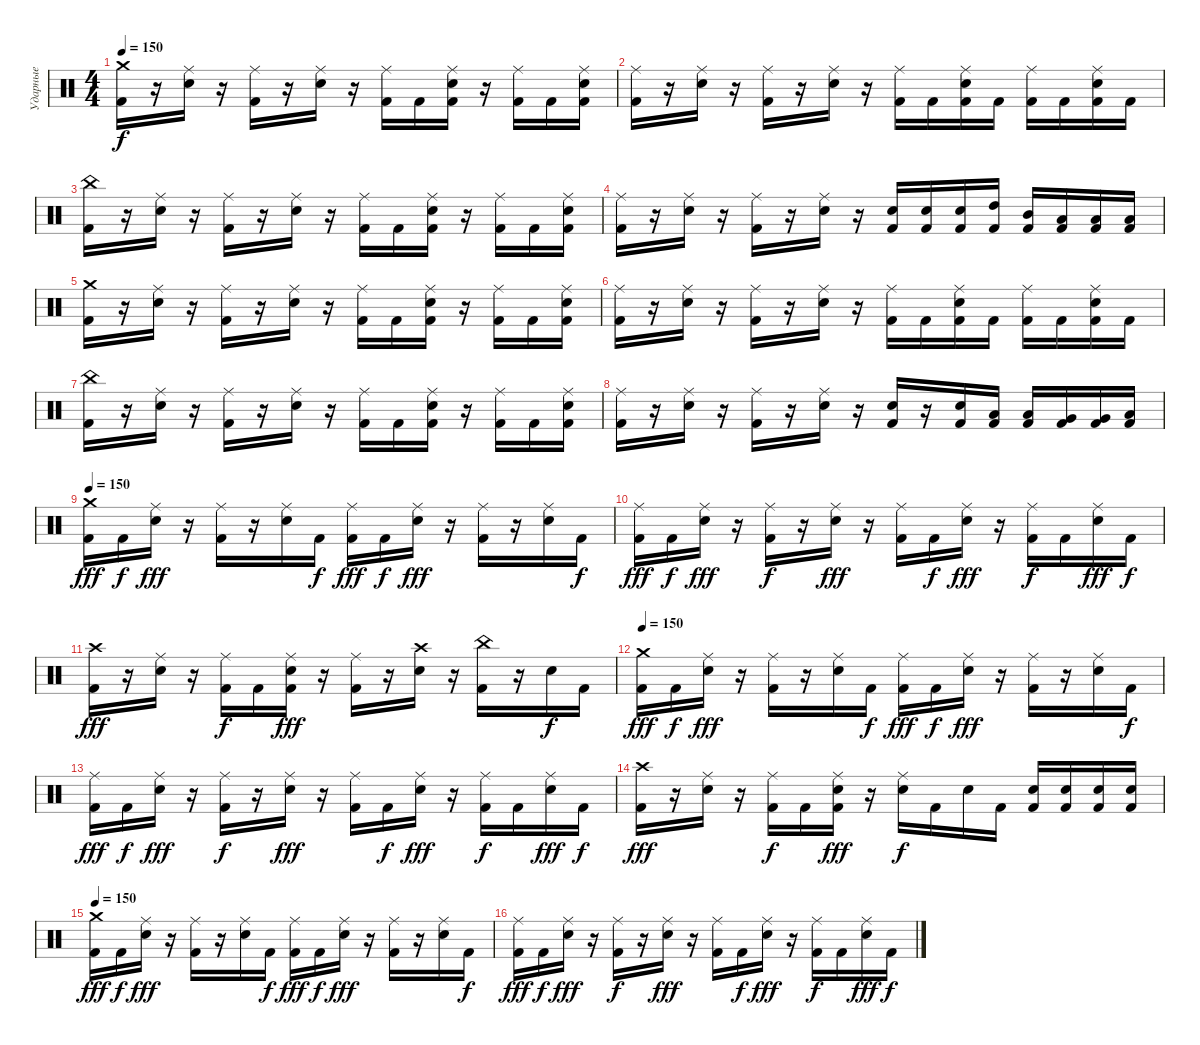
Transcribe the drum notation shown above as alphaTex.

\track ("Ударные" "Ударные") {instrument percussion}
\staff {score}
\articulation defaults
\ts (4 4)
\tempo 150
\clef neutral
\ks c
("Crash medium (hit)" "Kick (hit) 2").16{dy f} r.16 ("Ride (middle)" "Snare (hit) 2").16 r.16 ("Ride (middle)" "Kick (hit) 2").16 r.16 ("Ride (middle)" "Snare (hit) 2").16 r.16 ("Ride (middle)" "Kick (hit) 2").16 "Kick (hit) 2".16 ("Ride (middle)" "Snare (hit) 2" "Kick (hit) 2").16 r.16 ("Ride (middle)" "Kick (hit) 2").16 "Kick (hit) 2".16 ("Ride (middle)" "Snare (hit) 2" "Kick (hit) 2").16 |
("Ride (middle)" "Kick (hit) 2").16 r.16 ("Ride (middle)" "Snare (hit) 2").16 r.16 ("Ride (middle)" "Kick (hit) 2").16 r.16 ("Ride (middle)" "Snare (hit) 2").16 r.16 ("Ride (middle)" "Kick (hit) 2").16 "Kick (hit) 2".16 ("Ride (middle)" "Snare (hit) 2" "Kick (hit) 2").16 "Kick (hit) 2".16 ("Ride (middle)" "Kick (hit) 2").16 "Kick (hit) 2".16 ("Ride (middle)" "Snare (hit) 2" "Kick (hit) 2").16 "Kick (hit) 2".16 |
("China (hit)" "Kick (hit) 2").16 r.16 ("Ride (middle)" "Snare (hit) 2").16 r.16 ("Ride (middle)" "Kick (hit) 2").16 r.16 ("Ride (middle)" "Snare (hit) 2").16 r.16 ("Ride (middle)" "Kick (hit) 2").16 "Kick (hit) 2".16 ("Ride (middle)" "Snare (hit) 2" "Kick (hit) 2").16 r.16 ("Ride (middle)" "Kick (hit) 2").16 "Kick (hit) 2".16 ("Ride (middle)" "Snare (hit) 2" "Kick (hit) 2").16 |
("Ride (middle)" "Kick (hit) 2").16 r.16 ("Ride (middle)" "Snare (hit) 2").16 r.16 ("Ride (middle)" "Kick (hit) 2").16 r.16 ("Ride (middle)" "Snare (hit) 2").16 r.16 ("Snare (hit) 2" "Kick (hit) 2").16 ("Snare (hit) 2" "Kick (hit) 2").16 ("Snare (hit) 2" "Kick (hit) 2").16 ("High Tom (hit)" "Kick (hit) 2").16 ("Mid Tom (hit)" "Kick (hit) 2").16 ("Low Tom (hit)" "Kick (hit) 2").16 ("Low Tom (hit)" "Kick (hit) 2").16 ("Low Tom (hit)" "Kick (hit) 2").16 |
("Crash medium (hit)" "Kick (hit) 2").16 r.16 ("Ride (middle)" "Snare (hit) 2").16 r.16 ("Ride (middle)" "Kick (hit) 2").16 r.16 ("Ride (middle)" "Snare (hit) 2").16 r.16 ("Ride (middle)" "Kick (hit) 2").16 "Kick (hit) 2".16 ("Ride (middle)" "Snare (hit) 2" "Kick (hit) 2").16 r.16 ("Ride (middle)" "Kick (hit) 2").16 "Kick (hit) 2".16 ("Ride (middle)" "Snare (hit) 2" "Kick (hit) 2").16 |
("Ride (middle)" "Kick (hit) 2").16 r.16 ("Ride (middle)" "Snare (hit) 2").16 r.16 ("Ride (middle)" "Kick (hit) 2").16 r.16 ("Ride (middle)" "Snare (hit) 2").16 r.16 ("Ride (middle)" "Kick (hit) 2").16 "Kick (hit) 2".16 ("Ride (middle)" "Snare (hit) 2" "Kick (hit) 2").16 "Kick (hit) 2".16 ("Ride (middle)" "Kick (hit) 2").16 "Kick (hit) 2".16 ("Ride (middle)" "Snare (hit) 2" "Kick (hit) 2").16 "Kick (hit) 2".16 |
("China (hit)" "Kick (hit) 2").16 r.16 ("Ride (middle)" "Snare (hit) 2").16 r.16 ("Ride (middle)" "Kick (hit) 2").16 r.16 ("Ride (middle)" "Snare (hit) 2").16 r.16 ("Ride (middle)" "Kick (hit) 2").16 "Kick (hit) 2".16 ("Ride (middle)" "Snare (hit) 2" "Kick (hit) 2").16 r.16 ("Ride (middle)" "Kick (hit) 2").16 "Kick (hit) 2".16 ("Ride (middle)" "Snare (hit) 2" "Kick (hit) 2").16 |
("Ride (middle)" "Kick (hit) 2").16 r.16 ("Ride (middle)" "Snare (hit) 2").16 r.16 ("Ride (middle)" "Kick (hit) 2").16 r.16 ("Ride (middle)" "Snare (hit) 2").16 r.16 ("Snare (hit) 2" "Kick (hit) 2").16 r.16 ("Snare (hit) 2" "Kick (hit) 2").16 ("Low Tom (hit)" "Kick (hit) 2").16 ("Low Tom (hit)" "Kick (hit) 2").16 ("Very Low Tom (hit)" "Kick (hit) 2").16 ("Very Low Tom (hit)" "Kick (hit) 2").16 ("Low Floor Tom (hit)" "Kick (hit) 2").16 |
\tempo 150
("Crash medium (hit)" "Kick (hit) 2").16{dy fff} "Kick (hit) 2".16{dy f} ("Ride (middle)" "Snare (hit) 2").16{dy fff} r.16 ("Ride (middle)" "Kick (hit) 2").16 r.16 ("Ride (middle)" "Snare (hit) 2").16 "Kick (hit) 2".16{dy f} ("Ride (middle)" "Kick (hit) 2").16{dy fff} "Kick (hit) 2".16{dy f} ("Ride (middle)" "Snare (hit) 2").16{dy fff} r.16 ("Ride (middle)" "Kick (hit) 2").16 r.16 ("Ride (middle)" "Snare (hit) 2").16 "Kick (hit) 2".16{dy f} |
("Ride (middle)" "Kick (hit) 2").16{dy fff} "Kick (hit) 2".16{dy f} ("Ride (middle)" "Snare (hit) 2").16{dy fff} r.16 ("Ride (middle)" "Kick (hit) 2").16{dy f} r.16 ("Ride (middle)" "Snare (hit) 2").16{dy fff} r.16 ("Ride (middle)" "Kick (hit) 2").16 "Kick (hit) 2".16{dy f} ("Ride (middle)" "Snare (hit) 2").16{dy fff} r.16 ("Ride (middle)" "Kick (hit) 2").16{dy f} "Kick (hit) 2".16 ("Ride (middle)" "Snare (hit) 2").16{dy fff} "Kick (hit) 2".16{dy f} |
("Crash high (hit)" "Kick (hit) 2").16{dy fff} r.16 ("Ride (middle)" "Snare (hit) 2").16 r.16 ("Ride (middle)" "Kick (hit) 2").16{dy f} "Kick (hit) 2".16 ("Ride (middle)" "Snare (hit) 2" "Kick (hit) 2").16{dy fff} r.16 ("Ride (middle)" "Kick (hit) 2").16 r.16 ("Crash high (hit)" "Snare (hit) 2").16 r.16 ("China (hit)" "Kick (hit) 2").16 r.16 "Snare (hit) 2".16{dy f} "Kick (hit) 2".16 |
\tempo 150
("Crash medium (hit)" "Kick (hit) 2").16{dy fff} "Kick (hit) 2".16{dy f} ("Ride (middle)" "Snare (hit) 2").16{dy fff} r.16 ("Ride (middle)" "Kick (hit) 2").16 r.16 ("Ride (middle)" "Snare (hit) 2").16 "Kick (hit) 2".16{dy f} ("Ride (middle)" "Kick (hit) 2").16{dy fff} "Kick (hit) 2".16{dy f} ("Ride (middle)" "Snare (hit) 2").16{dy fff} r.16 ("Ride (middle)" "Kick (hit) 2").16 r.16 ("Ride (middle)" "Snare (hit) 2").16 "Kick (hit) 2".16{dy f} |
("Ride (middle)" "Kick (hit) 2").16{dy fff} "Kick (hit) 2".16{dy f} ("Ride (middle)" "Snare (hit) 2").16{dy fff} r.16 ("Ride (middle)" "Kick (hit) 2").16{dy f} r.16 ("Ride (middle)" "Snare (hit) 2").16{dy fff} r.16 ("Ride (middle)" "Kick (hit) 2").16 "Kick (hit) 2".16{dy f} ("Ride (middle)" "Snare (hit) 2").16{dy fff} r.16 ("Ride (middle)" "Kick (hit) 2").16{dy f} "Kick (hit) 2".16 ("Ride (middle)" "Snare (hit) 2").16{dy fff} "Kick (hit) 2".16{dy f} |
("Crash high (hit)" "Kick (hit) 2").16{dy fff} r.16 ("Ride (middle)" "Snare (hit) 2").16 r.16 ("Ride (middle)" "Kick (hit) 2").16{dy f} "Kick (hit) 2".16 ("Ride (middle)" "Snare (hit) 2" "Kick (hit) 2").16{dy fff} r.16 ("Ride (middle)" "Snare (hit) 2").16{dy f} "Kick (hit) 2".16 "Snare (hit) 2".16 "Kick (hit) 2".16 ("Snare (hit) 2" "Kick (hit) 2").16 ("Snare (hit) 2" "Kick (hit) 2").16 ("Snare (hit) 2" "Kick (hit) 2").16 ("Snare (hit) 2" "Kick (hit) 2").16 |
\tempo 150
("Crash medium (hit)" "Kick (hit) 2").16{dy fff} "Kick (hit) 2".16{dy f} ("Ride (middle)" "Snare (hit) 2").16{dy fff} r.16 ("Ride (middle)" "Kick (hit) 2").16 r.16 ("Ride (middle)" "Snare (hit) 2").16 "Kick (hit) 2".16{dy f} ("Ride (middle)" "Kick (hit) 2").16{dy fff} "Kick (hit) 2".16{dy f} ("Ride (middle)" "Snare (hit) 2").16{dy fff} r.16 ("Ride (middle)" "Kick (hit) 2").16 r.16 ("Ride (middle)" "Snare (hit) 2").16 "Kick (hit) 2".16{dy f} |
("Ride (middle)" "Kick (hit) 2").16{dy fff} "Kick (hit) 2".16{dy f} ("Ride (middle)" "Snare (hit) 2").16{dy fff} r.16 ("Ride (middle)" "Kick (hit) 2").16{dy f} r.16 ("Ride (middle)" "Snare (hit) 2").16{dy fff} r.16 ("Ride (middle)" "Kick (hit) 2").16 "Kick (hit) 2".16{dy f} ("Ride (middle)" "Snare (hit) 2").16{dy fff} r.16 ("Ride (middle)" "Kick (hit) 2").16{dy f} "Kick (hit) 2".16 ("Ride (middle)" "Snare (hit) 2").16{dy fff} "Kick (hit) 2".16{dy f}
